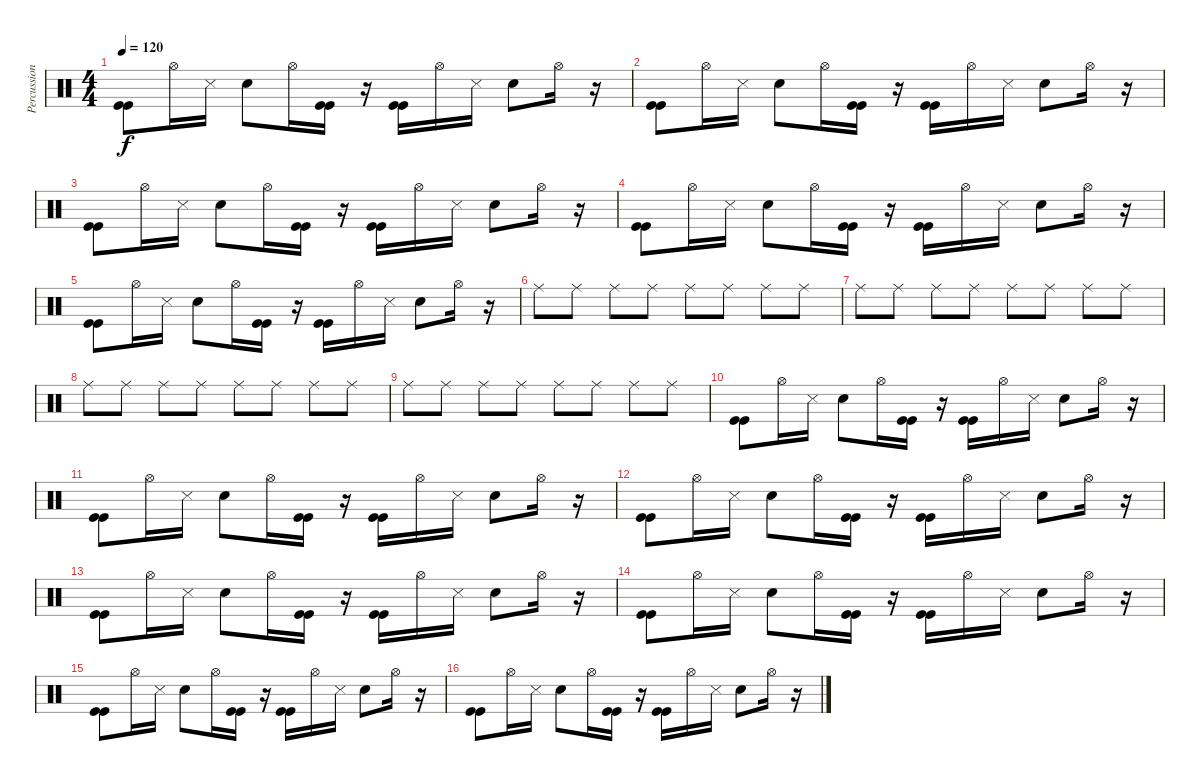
\track ("Percussions" "Percussion") {instrument percussion}
\staff {score}
\articulation defaults
\ts (4 4)
\tempo 120
\clef neutral
\ks c
("Kick (hit)" "Kick (hit)").8{dy f} "Hi-Hat (open)".16 "Snare (side stick) 3".16 "Electric Snare (hit)".8 "Hi-Hat (open)".16 ("Kick (hit)" "Kick (hit)").16 r.16 ("Kick (hit)" "Kick (hit)").16 "Hi-Hat (open)".16 "Snare (side stick) 3".16 "Electric Snare (hit)".8 "Hi-Hat (open)".16 r.16 |
("Kick (hit)" "Kick (hit)").8 "Hi-Hat (open)".16 "Snare (side stick) 3".16 "Electric Snare (hit)".8 "Hi-Hat (open)".16 ("Kick (hit)" "Kick (hit)").16 r.16 ("Kick (hit)" "Kick (hit)").16 "Hi-Hat (open)".16 "Snare (side stick) 3".16 "Electric Snare (hit)".8 "Hi-Hat (open)".16 r.16 |
("Kick (hit)" "Kick (hit)").8 "Hi-Hat (open)".16 "Snare (side stick) 3".16 "Electric Snare (hit)".8 "Hi-Hat (open)".16 ("Kick (hit)" "Kick (hit)").16 r.16 ("Kick (hit)" "Kick (hit)").16 "Hi-Hat (open)".16 "Snare (side stick) 3".16 "Electric Snare (hit)".8 "Hi-Hat (open)".16 r.16 |
("Kick (hit)" "Kick (hit)").8 "Hi-Hat (open)".16 "Snare (side stick) 3".16 "Electric Snare (hit)".8 "Hi-Hat (open)".16 ("Kick (hit)" "Kick (hit)").16 r.16 ("Kick (hit)" "Kick (hit)").16 "Hi-Hat (open)".16 "Snare (side stick) 3".16 "Electric Snare (hit)".8 "Hi-Hat (open)".16 r.16 |
("Kick (hit)" "Kick (hit)").8 "Hi-Hat (open)".16 "Snare (side stick) 3".16 "Electric Snare (hit)".8 "Hi-Hat (open)".16 ("Kick (hit)" "Kick (hit)").16 r.16 ("Kick (hit)" "Kick (hit)").16 "Hi-Hat (open)".16 "Snare (side stick) 3".16 "Electric Snare (hit)".8 "Hi-Hat (open)".16 r.16 |
"Ride (middle)".8 "Ride (middle)".8 "Ride (middle)".8 "Ride (middle)".8 "Ride (middle)".8 "Ride (middle)".8 "Ride (middle)".8 "Ride (middle)".8 |
"Ride (middle)".8 "Ride (middle)".8 "Ride (middle)".8 "Ride (middle)".8 "Ride (middle)".8 "Ride (middle)".8 "Ride (middle)".8 "Ride (middle)".8 |
"Ride (middle)".8 "Ride (middle)".8 "Ride (middle)".8 "Ride (middle)".8 "Ride (middle)".8 "Ride (middle)".8 "Ride (middle)".8 "Ride (middle)".8 |
"Ride (middle)".8 "Ride (middle)".8 "Ride (middle)".8 "Ride (middle)".8 "Ride (middle)".8 "Ride (middle)".8 "Ride (middle)".8 "Ride (middle)".8 |
("Kick (hit)" "Kick (hit)").8 "Hi-Hat (open)".16 "Snare (side stick) 3".16 "Electric Snare (hit)".8 "Hi-Hat (open)".16 ("Kick (hit)" "Kick (hit)").16 r.16 ("Kick (hit)" "Kick (hit)").16 "Hi-Hat (open)".16 "Snare (side stick) 3".16 "Electric Snare (hit)".8 "Hi-Hat (open)".16 r.16 |
("Kick (hit)" "Kick (hit)").8 "Hi-Hat (open)".16 "Snare (side stick) 3".16 "Electric Snare (hit)".8 "Hi-Hat (open)".16 ("Kick (hit)" "Kick (hit)").16 r.16 ("Kick (hit)" "Kick (hit)").16 "Hi-Hat (open)".16 "Snare (side stick) 3".16 "Electric Snare (hit)".8 "Hi-Hat (open)".16 r.16 |
("Kick (hit)" "Kick (hit)").8 "Hi-Hat (open)".16 "Snare (side stick) 3".16 "Electric Snare (hit)".8 "Hi-Hat (open)".16 ("Kick (hit)" "Kick (hit)").16 r.16 ("Kick (hit)" "Kick (hit)").16 "Hi-Hat (open)".16 "Snare (side stick) 3".16 "Electric Snare (hit)".8 "Hi-Hat (open)".16 r.16 |
("Kick (hit)" "Kick (hit)").8 "Hi-Hat (open)".16 "Snare (side stick) 3".16 "Electric Snare (hit)".8 "Hi-Hat (open)".16 ("Kick (hit)" "Kick (hit)").16 r.16 ("Kick (hit)" "Kick (hit)").16 "Hi-Hat (open)".16 "Snare (side stick) 3".16 "Electric Snare (hit)".8 "Hi-Hat (open)".16 r.16 |
("Kick (hit)" "Kick (hit)").8 "Hi-Hat (open)".16 "Snare (side stick) 3".16 "Electric Snare (hit)".8 "Hi-Hat (open)".16 ("Kick (hit)" "Kick (hit)").16 r.16 ("Kick (hit)" "Kick (hit)").16 "Hi-Hat (open)".16 "Snare (side stick) 3".16 "Electric Snare (hit)".8 "Hi-Hat (open)".16 r.16 |
("Kick (hit)" "Kick (hit)").8 "Hi-Hat (open)".16 "Snare (side stick) 3".16 "Electric Snare (hit)".8 "Hi-Hat (open)".16 ("Kick (hit)" "Kick (hit)").16 r.16 ("Kick (hit)" "Kick (hit)").16 "Hi-Hat (open)".16 "Snare (side stick) 3".16 "Electric Snare (hit)".8 "Hi-Hat (open)".16 r.16 |
("Kick (hit)" "Kick (hit)").8 "Hi-Hat (open)".16 "Snare (side stick) 3".16 "Electric Snare (hit)".8 "Hi-Hat (open)".16 ("Kick (hit)" "Kick (hit)").16 r.16 ("Kick (hit)" "Kick (hit)").16 "Hi-Hat (open)".16 "Snare (side stick) 3".16 "Electric Snare (hit)".8 "Hi-Hat (open)".16 r.16
